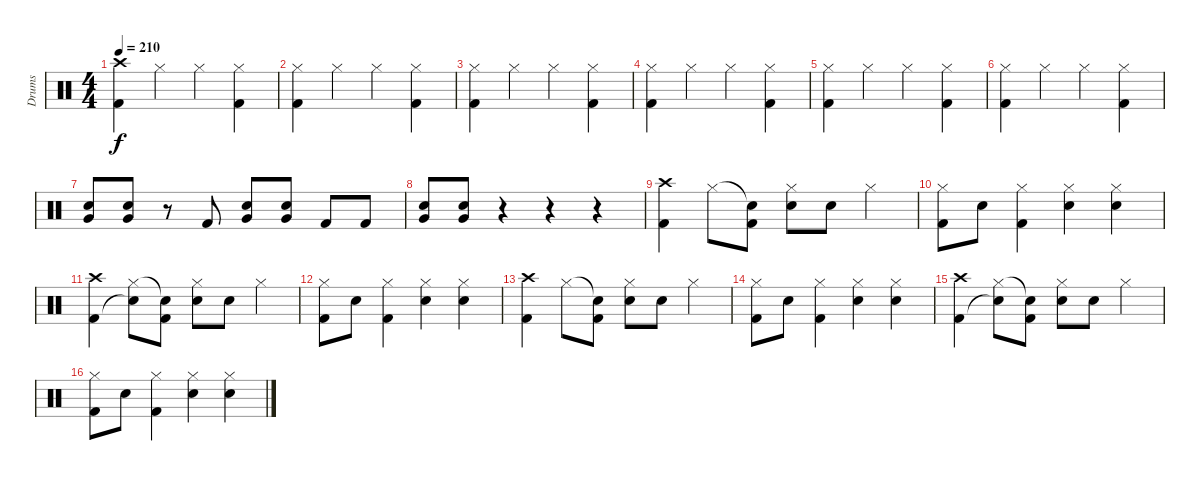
\track ("Drums" "Drums") {instrument percussion}
\staff {score}
\articulation defaults
\ts (4 4)
\tempo 210
\clef neutral
\ks c
("Crash high (hit)" "Kick (hit) 2").4{dy f} "Hi-Hat (closed)".4 "Hi-Hat (closed)".4 ("Hi-Hat (closed)" "Kick (hit) 2").4 |
("Hi-Hat (closed)" "Kick (hit) 2").4 "Hi-Hat (closed)".4 "Hi-Hat (closed)".4 ("Hi-Hat (closed)" "Kick (hit) 2").4 |
("Hi-Hat (closed)" "Kick (hit) 2").4 "Hi-Hat (closed)".4 "Hi-Hat (closed)".4 ("Hi-Hat (closed)" "Kick (hit) 2").4 |
("Hi-Hat (closed)" "Kick (hit) 2").4 "Hi-Hat (closed)".4 "Hi-Hat (closed)".4 ("Hi-Hat (closed)" "Kick (hit) 2").4 |
("Hi-Hat (closed)" "Kick (hit) 2").4 "Hi-Hat (closed)".4 "Hi-Hat (closed)".4 ("Hi-Hat (closed)" "Kick (hit) 2").4 |
("Hi-Hat (closed)" "Kick (hit) 2").4 "Hi-Hat (closed)".4 "Hi-Hat (closed)".4 ("Hi-Hat (closed)" "Kick (hit) 2").4 |
("Snare (hit) 2" "Very Low Tom (hit)").8 ("Snare (hit) 2" "Very Low Tom (hit)").8 r.8 "Kick (hit) 2".8 ("Snare (hit) 2" "Very Low Tom (hit)").8 ("Snare (hit) 2" "Very Low Tom (hit)").8 "Kick (hit) 2".8 "Kick (hit) 2".8 |
("Snare (hit) 2" "Very Low Tom (hit)").8 ("Snare (hit) 2" "Very Low Tom (hit)").8 r.4 r.4 r.4 |
("Crash high (hit)" "Kick (hit) 2").4 "Hi-Hat (closed)".8 ("Snare (hit)"{t} "Kick (hit) 2").8 ("Hi-Hat (closed)" "Snare (hit) 2").8 "Snare (hit) 2".8 "Hi-Hat (closed)".4 |
("Hi-Hat (closed)" "Kick (hit) 2").8 "Snare (hit) 2".8 ("Hi-Hat (closed)" "Kick (hit) 2").4 ("Hi-Hat (closed)" "Snare (hit) 2").4 ("Hi-Hat (closed)" "Snare (hit) 2").4 |
("Crash high (hit)" "Kick (hit) 2").4 ("Hi-Hat (closed)" "Snare (hit)"{t}).8 ("Snare (hit)"{t} "Kick (hit) 2").8 ("Hi-Hat (closed)" "Snare (hit) 2").8 "Snare (hit) 2".8 "Hi-Hat (closed)".4 |
("Hi-Hat (closed)" "Kick (hit) 2").8 "Snare (hit) 2".8 ("Hi-Hat (closed)" "Kick (hit) 2").4 ("Hi-Hat (closed)" "Snare (hit) 2").4 ("Hi-Hat (closed)" "Snare (hit) 2").4 |
("Crash high (hit)" "Kick (hit) 2").4 "Hi-Hat (closed)".8 ("Snare (hit)"{t} "Kick (hit) 2").8 ("Hi-Hat (closed)" "Snare (hit) 2").8 "Snare (hit) 2".8 "Hi-Hat (closed)".4 |
("Hi-Hat (closed)" "Kick (hit) 2").8 "Snare (hit) 2".8 ("Hi-Hat (closed)" "Kick (hit) 2").4 ("Hi-Hat (closed)" "Snare (hit) 2").4 ("Hi-Hat (closed)" "Snare (hit) 2").4 |
("Crash high (hit)" "Kick (hit) 2").4 ("Hi-Hat (closed)" "Snare (hit)"{t}).8 ("Snare (hit)"{t} "Kick (hit) 2").8 ("Hi-Hat (closed)" "Snare (hit) 2").8 "Snare (hit) 2".8 "Hi-Hat (closed)".4 |
("Hi-Hat (closed)" "Kick (hit) 2").8 "Snare (hit) 2".8 ("Hi-Hat (closed)" "Kick (hit) 2").4 ("Hi-Hat (closed)" "Snare (hit) 2").4 ("Hi-Hat (closed)" "Snare (hit) 2").4
